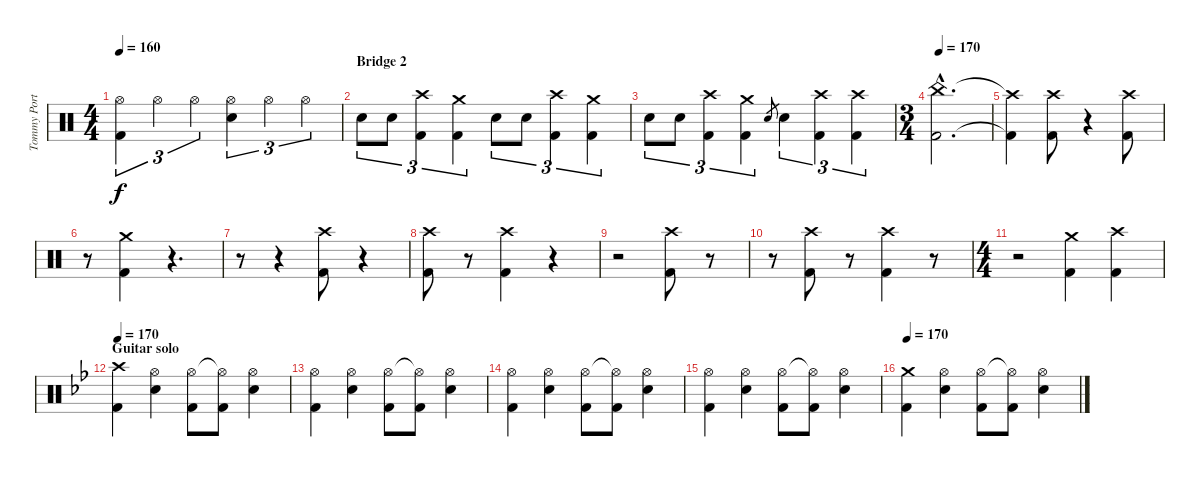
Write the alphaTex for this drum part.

\track ("Tommy Portimo" "Tommy Port") {instrument percussion}
\staff {score}
\articulation defaults
\ts (4 4)
\tempo 160
\clef neutral
\ks c
("Hi-Hat (open)" "Kick (hit) 2").4{tu (3 2) dy f} "Hi-Hat (open)".4{tu (3 2)} "Hi-Hat (open)".4{tu (3 2)} ("Hi-Hat (open)" "Snare (hit) 2").4{tu (3 2)} "Hi-Hat (open)".4{tu (3 2)} "Hi-Hat (open)".4{tu (3 2)} |
\section ("" "Bridge 2")
"Snare (hit) 2".8{tu (3 2)} "Snare (hit) 2".8{tu (3 2)} ("Crash high (hit)" "Kick (hit) 2").4{tu (3 2)} ("Crash medium (hit)" "Kick (hit) 2").4{tu (3 2)} "Snare (hit) 2".8{tu (3 2)} "Snare (hit) 2".8{tu (3 2)} ("Crash high (hit)" "Kick (hit) 2").4{tu (3 2)} ("Crash medium (hit)" "Kick (hit) 2").4{tu (3 2)} |
"Snare (hit) 2".8{tu (3 2)} "Snare (hit) 2".8{tu (3 2)} ("Crash high (hit)" "Kick (hit) 2").4{tu (3 2)} ("Crash medium (hit)" "Kick (hit) 2").4{tu (3 2)} "Snare (hit) 2".8{gr} "Snare (hit) 2".4{tu (3 2)} ("Crash high (hit)" "Kick (hit) 2").4{tu (3 2)} ("Crash high (hit)" "Kick (hit) 2").4{tu (3 2)} |
\ts (3 4)
\tempo 170
("China (hit)"{hac} "Kick (hit) 2"{hac}).2{d} |
("Crash high (hit)"{t} "Kick (hit) 2"{t}).4 ("Crash high (hit)" "Kick (hit) 2").8 r.4 ("Crash high (hit)" "Kick (hit) 2").8 |
r.8 ("Crash medium (hit)" "Kick (hit) 2").4 r.4{d} |
r.8 r.4 ("Crash high (hit)" "Kick (hit) 2").8 r.4 |
("Crash high (hit)" "Kick (hit) 2").8 r.8 ("Crash high (hit)" "Kick (hit) 2").4 r.4 |
r.2 ("Crash high (hit)" "Kick (hit) 2").8 r.8 |
r.8 ("Crash high (hit)" "Kick (hit) 2").8 r.8 ("Crash high (hit)" "Kick (hit) 2").4 r.8 |
\ts (4 4)
r.2 ("Crash medium (hit)" "Kick (hit) 2").4 ("Crash high (hit)" "Kick (hit) 2").4 |
\section ("" "Guitar solo ")
\tempo 170
\ks gminor
("Crash high (hit)" "Kick (hit) 2").4 ("Hi-Hat (open)" "Snare (hit) 2").4 ("Hi-Hat (open)" "Kick (hit) 2").8 ("Hi-Hat (open)"{t} "Kick (hit) 2").8 ("Hi-Hat (open)" "Snare (hit) 2").4 |
("Hi-Hat (open)" "Kick (hit) 2").4 ("Hi-Hat (open)" "Snare (hit) 2").4 ("Hi-Hat (open)" "Kick (hit) 2").8 ("Hi-Hat (open)"{t} "Kick (hit) 2").8 ("Hi-Hat (open)" "Snare (hit) 2").4 |
("Hi-Hat (open)" "Kick (hit) 2").4 ("Hi-Hat (open)" "Snare (hit) 2").4 ("Hi-Hat (open)" "Kick (hit) 2").8 ("Hi-Hat (open)"{t} "Kick (hit) 2").8 ("Hi-Hat (open)" "Snare (hit) 2").4 |
("Hi-Hat (open)" "Kick (hit) 2").4 ("Hi-Hat (open)" "Snare (hit) 2").4 ("Hi-Hat (open)" "Kick (hit) 2").8 ("Hi-Hat (open)"{t} "Kick (hit) 2").8 ("Hi-Hat (open)" "Snare (hit) 2").4 |
\tempo 170
("Crash medium (hit)" "Kick (hit) 2").4 ("Hi-Hat (open)" "Snare (hit) 2").4 ("Hi-Hat (open)" "Kick (hit) 2").8 ("Hi-Hat (open)"{t} "Kick (hit) 2").8 ("Hi-Hat (open)" "Snare (hit) 2").4
